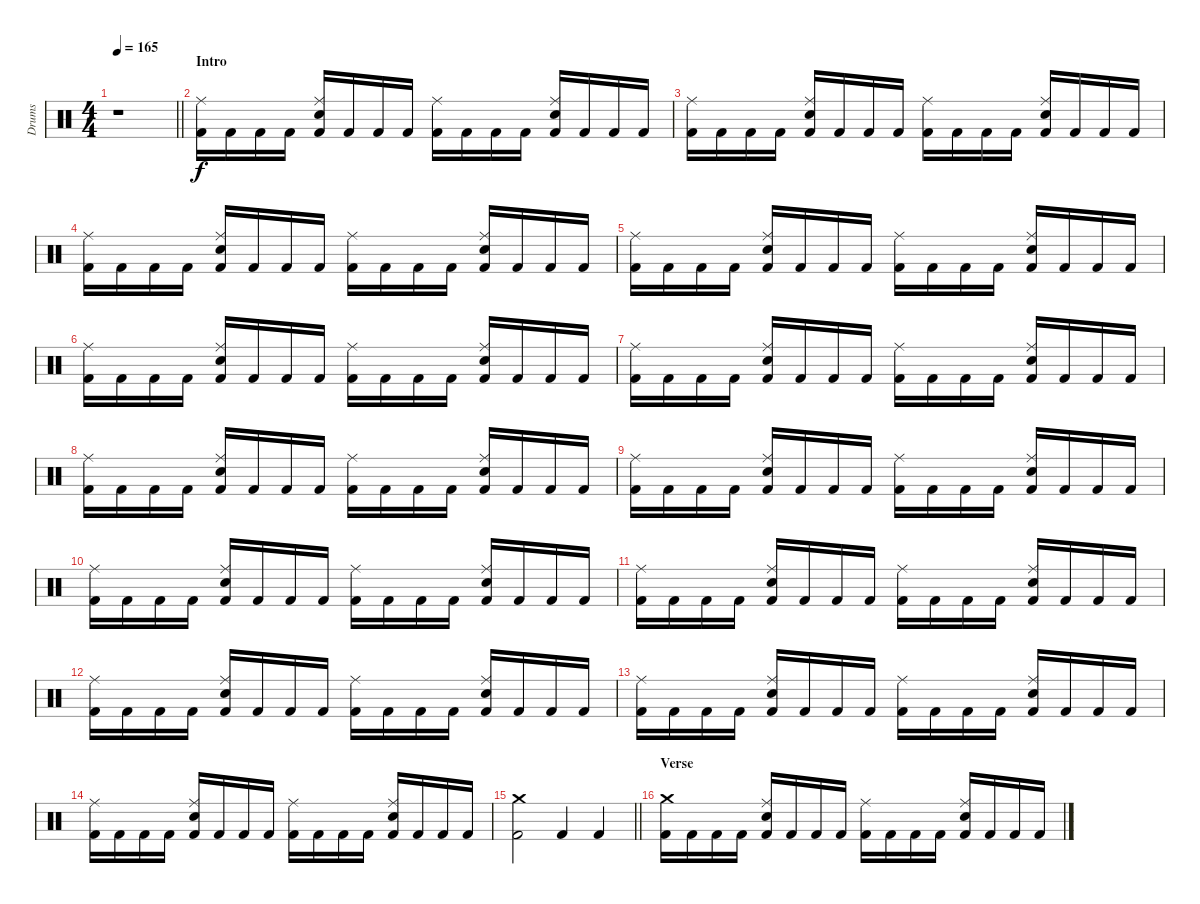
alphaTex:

\track ("Drums" "Drums") {instrument percussion}
\staff {score}
\articulation defaults
\ts (4 4)
\tempo 165
\clef neutral
\barLineRight lightlight
\ks c
r.1{dy f} |
\section ("" "Intro")
("Kick (hit) 2" "Ride (middle)").16 "Kick (hit) 2".16 "Kick (hit) 2".16 "Kick (hit) 2".16 ("Kick (hit) 2" "Electric Snare (hit)" "Ride (middle)").16 "Kick (hit) 2".16 "Kick (hit) 2".16 "Kick (hit) 2".16 ("Kick (hit) 2" "Ride (middle)").16 "Kick (hit) 2".16 "Kick (hit) 2".16 "Kick (hit) 2".16 ("Kick (hit) 2" "Electric Snare (hit)" "Ride (middle)").16 "Kick (hit) 2".16 "Kick (hit) 2".16 "Kick (hit) 2".16 |
("Kick (hit) 2" "Ride (middle)").16 "Kick (hit) 2".16 "Kick (hit) 2".16 "Kick (hit) 2".16 ("Kick (hit) 2" "Electric Snare (hit)" "Ride (middle)").16 "Kick (hit) 2".16 "Kick (hit) 2".16 "Kick (hit) 2".16 ("Kick (hit) 2" "Ride (middle)").16 "Kick (hit) 2".16 "Kick (hit) 2".16 "Kick (hit) 2".16 ("Kick (hit) 2" "Electric Snare (hit)" "Ride (middle)").16 "Kick (hit) 2".16 "Kick (hit) 2".16 "Kick (hit) 2".16 |
("Kick (hit) 2" "Ride (middle)").16 "Kick (hit) 2".16 "Kick (hit) 2".16 "Kick (hit) 2".16 ("Kick (hit) 2" "Electric Snare (hit)" "Ride (middle)").16 "Kick (hit) 2".16 "Kick (hit) 2".16 "Kick (hit) 2".16 ("Kick (hit) 2" "Ride (middle)").16 "Kick (hit) 2".16 "Kick (hit) 2".16 "Kick (hit) 2".16 ("Kick (hit) 2" "Electric Snare (hit)" "Ride (middle)").16 "Kick (hit) 2".16 "Kick (hit) 2".16 "Kick (hit) 2".16 |
("Kick (hit) 2" "Ride (middle)").16 "Kick (hit) 2".16 "Kick (hit) 2".16 "Kick (hit) 2".16 ("Kick (hit) 2" "Electric Snare (hit)" "Ride (middle)").16 "Kick (hit) 2".16 "Kick (hit) 2".16 "Kick (hit) 2".16 ("Kick (hit) 2" "Ride (middle)").16 "Kick (hit) 2".16 "Kick (hit) 2".16 "Kick (hit) 2".16 ("Kick (hit) 2" "Electric Snare (hit)" "Ride (middle)").16 "Kick (hit) 2".16 "Kick (hit) 2".16 "Kick (hit) 2".16 |
("Kick (hit) 2" "Ride (middle)").16 "Kick (hit) 2".16 "Kick (hit) 2".16 "Kick (hit) 2".16 ("Kick (hit) 2" "Electric Snare (hit)" "Ride (middle)").16 "Kick (hit) 2".16 "Kick (hit) 2".16 "Kick (hit) 2".16 ("Kick (hit) 2" "Ride (middle)").16 "Kick (hit) 2".16 "Kick (hit) 2".16 "Kick (hit) 2".16 ("Kick (hit) 2" "Electric Snare (hit)" "Ride (middle)").16 "Kick (hit) 2".16 "Kick (hit) 2".16 "Kick (hit) 2".16 |
("Kick (hit) 2" "Ride (middle)").16 "Kick (hit) 2".16 "Kick (hit) 2".16 "Kick (hit) 2".16 ("Kick (hit) 2" "Electric Snare (hit)" "Ride (middle)").16 "Kick (hit) 2".16 "Kick (hit) 2".16 "Kick (hit) 2".16 ("Kick (hit) 2" "Ride (middle)").16 "Kick (hit) 2".16 "Kick (hit) 2".16 "Kick (hit) 2".16 ("Kick (hit) 2" "Electric Snare (hit)" "Ride (middle)").16 "Kick (hit) 2".16 "Kick (hit) 2".16 "Kick (hit) 2".16 |
("Kick (hit) 2" "Ride (middle)").16 "Kick (hit) 2".16 "Kick (hit) 2".16 "Kick (hit) 2".16 ("Kick (hit) 2" "Electric Snare (hit)" "Ride (middle)").16 "Kick (hit) 2".16 "Kick (hit) 2".16 "Kick (hit) 2".16 ("Kick (hit) 2" "Ride (middle)").16 "Kick (hit) 2".16 "Kick (hit) 2".16 "Kick (hit) 2".16 ("Kick (hit) 2" "Electric Snare (hit)" "Ride (middle)").16 "Kick (hit) 2".16 "Kick (hit) 2".16 "Kick (hit) 2".16 |
("Kick (hit) 2" "Ride (middle)").16 "Kick (hit) 2".16 "Kick (hit) 2".16 "Kick (hit) 2".16 ("Kick (hit) 2" "Electric Snare (hit)" "Ride (middle)").16 "Kick (hit) 2".16 "Kick (hit) 2".16 "Kick (hit) 2".16 ("Kick (hit) 2" "Ride (middle)").16 "Kick (hit) 2".16 "Kick (hit) 2".16 "Kick (hit) 2".16 ("Kick (hit) 2" "Electric Snare (hit)" "Ride (middle)").16 "Kick (hit) 2".16 "Kick (hit) 2".16 "Kick (hit) 2".16 |
("Kick (hit) 2" "Ride (middle)").16 "Kick (hit) 2".16 "Kick (hit) 2".16 "Kick (hit) 2".16 ("Kick (hit) 2" "Electric Snare (hit)" "Ride (middle)").16 "Kick (hit) 2".16 "Kick (hit) 2".16 "Kick (hit) 2".16 ("Kick (hit) 2" "Ride (middle)").16 "Kick (hit) 2".16 "Kick (hit) 2".16 "Kick (hit) 2".16 ("Kick (hit) 2" "Electric Snare (hit)" "Ride (middle)").16 "Kick (hit) 2".16 "Kick (hit) 2".16 "Kick (hit) 2".16 |
("Kick (hit) 2" "Ride (middle)").16 "Kick (hit) 2".16 "Kick (hit) 2".16 "Kick (hit) 2".16 ("Kick (hit) 2" "Electric Snare (hit)" "Ride (middle)").16 "Kick (hit) 2".16 "Kick (hit) 2".16 "Kick (hit) 2".16 ("Kick (hit) 2" "Ride (middle)").16 "Kick (hit) 2".16 "Kick (hit) 2".16 "Kick (hit) 2".16 ("Kick (hit) 2" "Electric Snare (hit)" "Ride (middle)").16 "Kick (hit) 2".16 "Kick (hit) 2".16 "Kick (hit) 2".16 |
("Kick (hit) 2" "Ride (middle)").16 "Kick (hit) 2".16 "Kick (hit) 2".16 "Kick (hit) 2".16 ("Kick (hit) 2" "Electric Snare (hit)" "Ride (middle)").16 "Kick (hit) 2".16 "Kick (hit) 2".16 "Kick (hit) 2".16 ("Kick (hit) 2" "Ride (middle)").16 "Kick (hit) 2".16 "Kick (hit) 2".16 "Kick (hit) 2".16 ("Kick (hit) 2" "Electric Snare (hit)" "Ride (middle)").16 "Kick (hit) 2".16 "Kick (hit) 2".16 "Kick (hit) 2".16 |
("Kick (hit) 2" "Ride (middle)").16 "Kick (hit) 2".16 "Kick (hit) 2".16 "Kick (hit) 2".16 ("Kick (hit) 2" "Electric Snare (hit)" "Ride (middle)").16 "Kick (hit) 2".16 "Kick (hit) 2".16 "Kick (hit) 2".16 ("Kick (hit) 2" "Ride (middle)").16 "Kick (hit) 2".16 "Kick (hit) 2".16 "Kick (hit) 2".16 ("Kick (hit) 2" "Electric Snare (hit)" "Ride (middle)").16 "Kick (hit) 2".16 "Kick (hit) 2".16 "Kick (hit) 2".16 |
("Kick (hit) 2" "Ride (middle)").16 "Kick (hit) 2".16 "Kick (hit) 2".16 "Kick (hit) 2".16 ("Kick (hit) 2" "Electric Snare (hit)" "Ride (middle)").16 "Kick (hit) 2".16 "Kick (hit) 2".16 "Kick (hit) 2".16 ("Kick (hit) 2" "Ride (middle)").16 "Kick (hit) 2".16 "Kick (hit) 2".16 "Kick (hit) 2".16 ("Kick (hit) 2" "Electric Snare (hit)" "Ride (middle)").16 "Kick (hit) 2".16 "Kick (hit) 2".16 "Kick (hit) 2".16 |
\barLineRight lightlight
("Kick (hit) 2" "Crash medium (hit)").2 "Kick (hit) 2".4 "Kick (hit) 2".4 |
\section ("" "Verse")
("Kick (hit) 2" "Crash medium (hit)").16 "Kick (hit) 2".16 "Kick (hit) 2".16 "Kick (hit) 2".16 ("Kick (hit) 2" "Electric Snare (hit)" "Ride (middle)").16 "Kick (hit) 2".16 "Kick (hit) 2".16 "Kick (hit) 2".16 ("Kick (hit) 2" "Ride (middle)").16 "Kick (hit) 2".16 "Kick (hit) 2".16 "Kick (hit) 2".16 ("Kick (hit) 2" "Electric Snare (hit)" "Ride (middle)").16 "Kick (hit) 2".16 "Kick (hit) 2".16 "Kick (hit) 2".16
